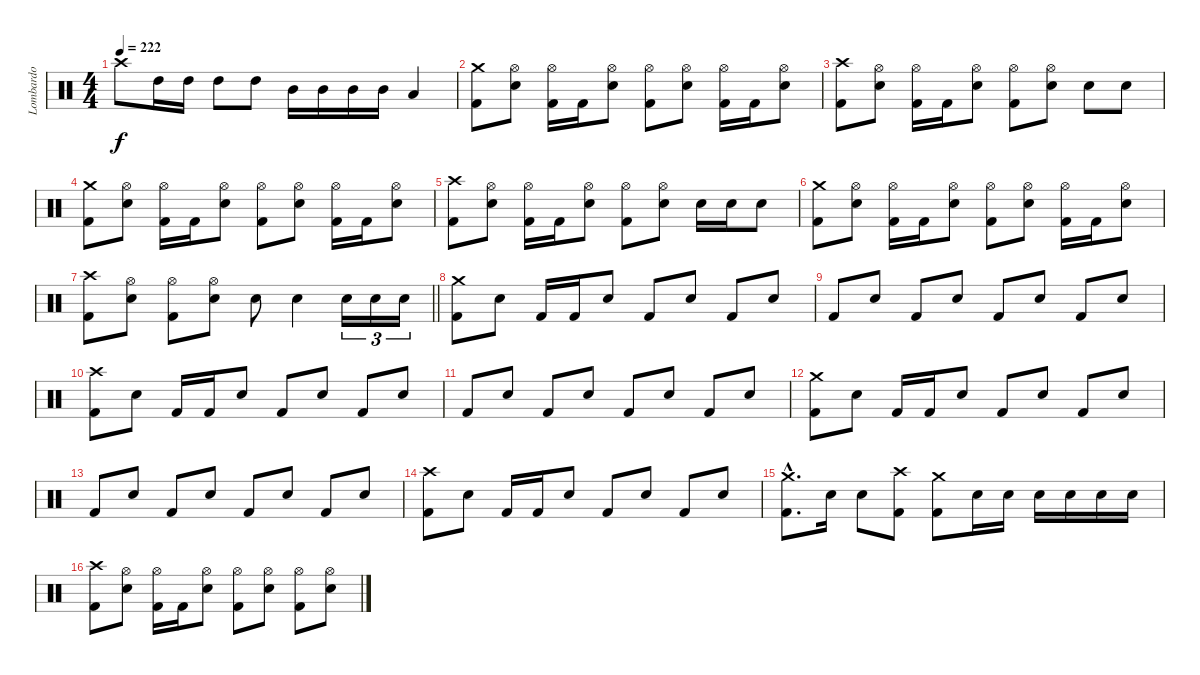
\track ("Lombardo" "Lombardo") {instrument percussion}
\staff {score}
\articulation defaults
\ts (4 4)
\tempo 222
\clef neutral
\ks c "Crash high (hit)".8{dy f} "High Tom (hit)".16 "High Tom (hit)".16 "High Tom (hit)".8 "High Tom (hit)".8 "Mid Tom (hit)".16 "Mid Tom (hit)".16 "Mid Tom (hit)".16 "Mid Tom (hit)".16 "Low Tom (hit)".4
|
("Crash medium (hit)" "Kick (hit) 2").8 ("Hi-Hat (open)" "Snare (hit) 2").8 ("Hi-Hat (open)" "Kick (hit) 2").16 "Kick (hit) 2".16 ("Hi-Hat (open)" "Snare (hit) 2").8 ("Hi-Hat (open)" "Kick (hit) 2").8 ("Hi-Hat (open)" "Snare (hit) 2").8 ("Hi-Hat (open)" "Kick (hit) 2").16 "Kick (hit) 2".16 ("Hi-Hat (open)" "Snare (hit) 2").8 |
("Crash high (hit)" "Kick (hit) 2").8 ("Hi-Hat (open)" "Snare (hit) 2").8 ("Hi-Hat (open)" "Kick (hit) 2").16 "Kick (hit) 2".16 ("Hi-Hat (open)" "Snare (hit) 2").8 ("Hi-Hat (open)" "Kick (hit) 2").8 ("Hi-Hat (open)" "Snare (hit) 2").8 "Snare (hit) 2".8 "Snare (hit) 2".8 |
("Crash medium (hit)" "Kick (hit) 2").8 ("Hi-Hat (open)" "Snare (hit) 2").8 ("Hi-Hat (open)" "Kick (hit) 2").16 "Kick (hit) 2".16 ("Hi-Hat (open)" "Snare (hit) 2").8 ("Hi-Hat (open)" "Kick (hit) 2").8 ("Hi-Hat (open)" "Snare (hit) 2").8 ("Hi-Hat (open)" "Kick (hit) 2").16 "Kick (hit) 2".16 ("Hi-Hat (open)" "Snare (hit) 2").8 |
("Crash high (hit)" "Kick (hit) 2").8 ("Hi-Hat (open)" "Snare (hit) 2").8 ("Hi-Hat (open)" "Kick (hit) 2").16 "Kick (hit) 2".16 ("Hi-Hat (open)" "Snare (hit) 2").8 ("Hi-Hat (open)" "Kick (hit) 2").8 ("Hi-Hat (open)" "Snare (hit) 2").8 "Snare (hit) 2".16 "Snare (hit) 2".16 "Snare (hit) 2".8 |
("Crash medium (hit)" "Kick (hit) 2").8 ("Hi-Hat (open)" "Snare (hit) 2").8 ("Hi-Hat (open)" "Kick (hit) 2").16 "Kick (hit) 2".16 ("Hi-Hat (open)" "Snare (hit) 2").8 ("Hi-Hat (open)" "Kick (hit) 2").8 ("Hi-Hat (open)" "Snare (hit) 2").8 ("Hi-Hat (open)" "Kick (hit) 2").16 "Kick (hit) 2".16 ("Hi-Hat (open)" "Snare (hit) 2").8 |
\barLineRight lightlight
("Crash high (hit)" "Kick (hit) 2").8 ("Hi-Hat (open)" "Snare (hit) 2").8 ("Hi-Hat (open)" "Kick (hit) 2").8 ("Hi-Hat (open)" "Snare (hit) 2").8 "Snare (hit) 2".8 "Snare (hit) 2".4 "Snare (hit) 2".16{tu (3 2)} "Snare (hit) 2".16{tu (3 2)} "Snare (hit) 2".16{tu (3 2)} |
("Crash medium (hit)" "Kick (hit) 2").8 "Snare (hit) 2".8 "Kick (hit) 2".16 "Kick (hit) 2".16 "Snare (hit) 2".8 "Kick (hit) 2".8 "Snare (hit) 2".8 "Kick (hit) 2".8 "Snare (hit) 2".8 |
"Kick (hit) 2".8 "Snare (hit) 2".8 "Kick (hit) 2".8 "Snare (hit) 2".8 "Kick (hit) 2".8 "Snare (hit) 2".8 "Kick (hit) 2".8 "Snare (hit) 2".8 |
("Crash high (hit)" "Kick (hit) 2").8 "Snare (hit) 2".8 "Kick (hit) 2".16 "Kick (hit) 2".16 "Snare (hit) 2".8 "Kick (hit) 2".8 "Snare (hit) 2".8 "Kick (hit) 2".8 "Snare (hit) 2".8 |
"Kick (hit) 2".8 "Snare (hit) 2".8 "Kick (hit) 2".8 "Snare (hit) 2".8 "Kick (hit) 2".8 "Snare (hit) 2".8 "Kick (hit) 2".8 "Snare (hit) 2".8 |
("Crash medium (hit)" "Kick (hit) 2").8 "Snare (hit) 2".8 "Kick (hit) 2".16 "Kick (hit) 2".16 "Snare (hit) 2".8 "Kick (hit) 2".8 "Snare (hit) 2".8 "Kick (hit) 2".8 "Snare (hit) 2".8 |
"Kick (hit) 2".8 "Snare (hit) 2".8 "Kick (hit) 2".8 "Snare (hit) 2".8 "Kick (hit) 2".8 "Snare (hit) 2".8 "Kick (hit) 2".8 "Snare (hit) 2".8 |
("Crash high (hit)" "Kick (hit) 2").8 "Snare (hit) 2".8 "Kick (hit) 2".16 "Kick (hit) 2".16 "Snare (hit) 2".8 "Kick (hit) 2".8 "Snare (hit) 2".8 "Kick (hit) 2".8 "Snare (hit) 2".8 |
("Crash medium (hit)"{hac} "Kick (hit) 2"{hac}).8{d} "Snare (hit) 2".16 "Snare (hit) 2".8 ("Crash high (hit)" "Kick (hit) 2").8 ("Crash medium (hit)" "Kick (hit) 2").8 "Snare (hit) 2".16 "Snare (hit) 2".16 "Snare (hit) 2".16 "Snare (hit) 2".16 "Snare (hit) 2".16 "Snare (hit) 2".16 |
("Crash high (hit)" "Kick (hit) 2").8 ("Hi-Hat (open)" "Snare (hit) 2").8 ("Hi-Hat (open)" "Kick (hit) 2").16 "Kick (hit) 2".16 ("Hi-Hat (open)" "Snare (hit) 2").8 ("Hi-Hat (open)" "Kick (hit) 2").8 ("Hi-Hat (open)" "Snare (hit) 2").8 ("Hi-Hat (open)" "Kick (hit) 2").8 ("Hi-Hat (open)" "Snare (hit) 2").8
